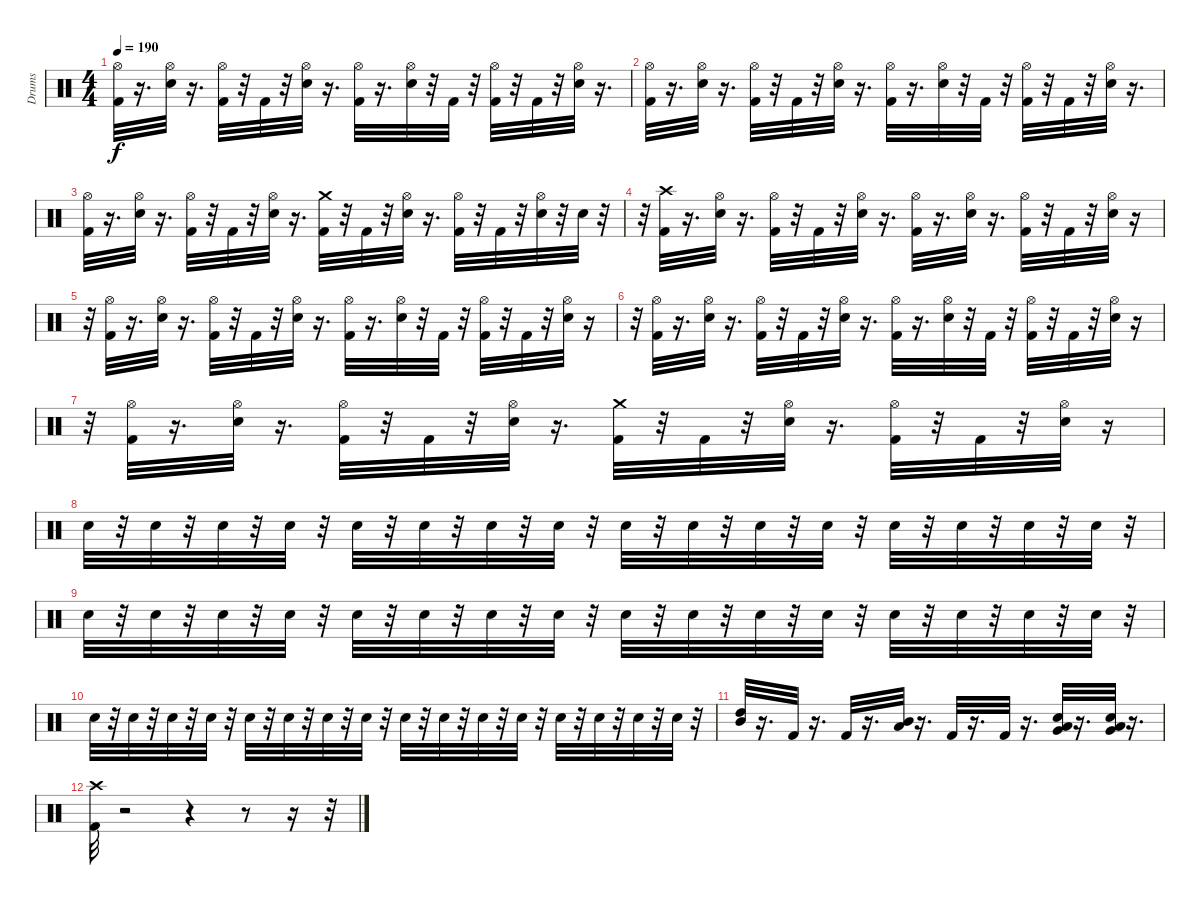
\track ("Drums" "Drums") {instrument percussion}
\staff {score}
\articulation defaults
\ts (4 4)
\tempo 190
\clef neutral
\ks c
("Kick (hit) 2" "Hi-Hat (open)").32{dy f} r.16{d} ("Snare (hit) 2" "Hi-Hat (open)").32 r.16{d} ("Kick (hit) 2" "Hi-Hat (open)").32 r.32 "Kick (hit) 2".32 r.32 ("Snare (hit) 2" "Hi-Hat (open)").32 r.16{d} ("Kick (hit) 2" "Hi-Hat (open)").32 r.16{d} ("Hi-Hat (open)" "Snare (hit) 2").32 r.32 "Kick (hit) 2".32 r.32 ("Hi-Hat (open)" "Kick (hit) 2").32 r.32 "Kick (hit) 2".32 r.32 ("Hi-Hat (open)" "Snare (hit) 2").32 r.16{d} |
("Kick (hit) 2" "Hi-Hat (open)").32 r.16{d} ("Hi-Hat (open)" "Snare (hit) 2").32 r.16{d} ("Kick (hit) 2" "Hi-Hat (open)").32 r.32 "Kick (hit) 2".32 r.32 ("Snare (hit) 2" "Hi-Hat (open)").32 r.16{d} ("Hi-Hat (open)" "Kick (hit) 2").32 r.16{d} ("Hi-Hat (open)" "Snare (hit) 2").32 r.32 "Kick (hit) 2".32 r.32 ("Kick (hit) 2" "Hi-Hat (open)").32 r.32 "Kick (hit) 2".32 r.32 ("Snare (hit) 2" "Hi-Hat (open)").32 r.16{d} |
("Hi-Hat (open)" "Kick (hit) 2").32 r.16{d} ("Hi-Hat (open)" "Snare (hit) 2").32 r.16{d} ("Kick (hit) 2" "Hi-Hat (open)").32 r.32 "Kick (hit) 2".32 r.32 ("Snare (hit) 2" "Hi-Hat (open)").32 r.16{d} ("Crash medium (hit)" "Kick (hit) 2").32 r.32 "Kick (hit) 2".32 r.32 ("Snare (hit) 2" "Hi-Hat (open)").32 r.16{d} ("Hi-Hat (open)" "Kick (hit) 2").32 r.32 "Kick (hit) 2".32 r.32 ("Hi-Hat (open)" "Snare (hit) 2").32 r.32 "Snare (hit) 2".32 r.32 |
r.32 ("Crash high (hit)" "Kick (hit) 2").32 r.16{d} ("Hi-Hat (open)" "Snare (hit) 2").32 r.16{d} ("Kick (hit) 2" "Hi-Hat (open)").32 r.32 "Kick (hit) 2".32 r.32 ("Snare (hit) 2" "Hi-Hat (open)").32 r.16{d} ("Kick (hit) 2" "Hi-Hat (open)").32 r.16{d} ("Snare (hit) 2" "Hi-Hat (open)").32 r.16{d} ("Kick (hit) 2" "Hi-Hat (open)").32 r.32 "Kick (hit) 2".32 r.32 ("Hi-Hat (open)" "Snare (hit) 2").32 r.16 |
r.32 ("Hi-Hat (open)" "Kick (hit) 2").32 r.16{d} ("Hi-Hat (open)" "Snare (hit) 2").32 r.16{d} ("Kick (hit) 2" "Hi-Hat (open)").32 r.32 "Kick (hit) 2".32 r.32 ("Snare (hit) 2" "Hi-Hat (open)").32 r.16{d} ("Hi-Hat (open)" "Kick (hit) 2").32 r.16{d} ("Snare (hit) 2" "Hi-Hat (open)").32 r.32 "Kick (hit) 2".32 r.32 ("Hi-Hat (open)" "Kick (hit) 2").32 r.32 "Kick (hit) 2".32 r.32 ("Hi-Hat (open)" "Snare (hit) 2").32 r.16 |
r.32 ("Hi-Hat (open)" "Kick (hit) 2").32 r.16{d} ("Hi-Hat (open)" "Snare (hit) 2").32 r.16{d} ("Kick (hit) 2" "Hi-Hat (open)").32 r.32 "Kick (hit) 2".32 r.32 ("Hi-Hat (open)" "Snare (hit) 2").32 r.16{d} ("Hi-Hat (open)" "Kick (hit) 2").32 r.16{d} ("Snare (hit) 2" "Hi-Hat (open)").32 r.32 "Kick (hit) 2".32 r.32 ("Hi-Hat (open)" "Kick (hit) 2").32 r.32 "Kick (hit) 2".32 r.32 ("Snare (hit) 2" "Hi-Hat (open)").32 r.16 |
r.32 ("Kick (hit) 2" "Hi-Hat (open)").32 r.16{d} ("Hi-Hat (open)" "Snare (hit) 2").32 r.16{d} ("Kick (hit) 2" "Hi-Hat (open)").32 r.32 "Kick (hit) 2".32 r.32 ("Hi-Hat (open)" "Snare (hit) 2").32 r.16{d} ("Kick (hit) 2" "Crash medium (hit)").32 r.32 "Kick (hit) 2".32 r.32 ("Hi-Hat (open)" "Snare (hit) 2").32 r.16{d} ("Kick (hit) 2" "Hi-Hat (open)").32 r.32 "Kick (hit) 2".32 r.32 ("Snare (hit) 2" "Hi-Hat (open)").32 r.16 |
"Snare (hit) 2".32 r.32 "Snare (hit) 2".32 r.32 "Snare (hit) 2".32 r.32 "Snare (hit) 2".32 r.32 "Snare (hit) 2".32 r.32 "Snare (hit) 2".32 r.32 "Snare (hit) 2".32 r.32 "Snare (hit) 2".32 r.32 "Snare (hit) 2".32 r.32 "Snare (hit) 2".32 r.32 "Snare (hit) 2".32 r.32 "Snare (hit) 2".32 r.32 "Snare (hit) 2".32 r.32 "Snare (hit) 2".32 r.32 "Snare (hit) 2".32 r.32 "Snare (hit) 2".32 r.32 |
"Snare (hit) 2".32 r.32 "Snare (hit) 2".32 r.32 "Snare (hit) 2".32 r.32 "Snare (hit) 2".32 r.32 "Snare (hit) 2".32 r.32 "Snare (hit) 2".32 r.32 "Snare (hit) 2".32 r.32 "Snare (hit) 2".32 r.32 "Snare (hit) 2".32 r.32 "Snare (hit) 2".32 r.32 "Snare (hit) 2".32 r.32 "Snare (hit) 2".32 r.32 "Snare (hit) 2".32 r.32 "Snare (hit) 2".32 r.32 "Snare (hit) 2".32 r.32 "Snare (hit) 2".32 r.32 |
"Snare (hit) 2".32 r.32 "Snare (hit) 2".32 r.32 "Snare (hit) 2".32 r.32 "Snare (hit) 2".32 r.32 "Snare (hit) 2".32 r.32 "Snare (hit) 2".32 r.32 "Snare (hit) 2".32 r.32 "Snare (hit) 2".32 r.32 "Snare (hit) 2".32 r.32 "Snare (hit) 2".32 r.32 "Snare (hit) 2".32 r.32 "Snare (hit) 2".32 r.32 "Snare (hit) 2".32 r.32 "Snare (hit) 2".32 r.32 "Snare (hit) 2".32 r.32 "Snare (hit) 2".32 r.32 |
("High Tom (hit)" "Mid Tom (hit)").32 r.16{d} "Kick (hit) 2".32 r.16{d} "Kick (hit) 2".32 r.16{d} ("Low Tom (hit)" "Mid Tom (hit)").32 r.16{d} "Kick (hit) 2".32 r.16{d} "Kick (hit) 2".32 r.16{d} ("Low Tom (hit)" "Snare (hit) 2" "Very Low Tom (hit)").32 r.16{d} ("Low Floor Tom (hit)" "Very Low Tom (hit)" "Snare (hit) 2").32 r.16{d} |
("Kick (hit) 2" "Crash high (hit)").32 r.2 r.4 r.8 r.16 r.32
